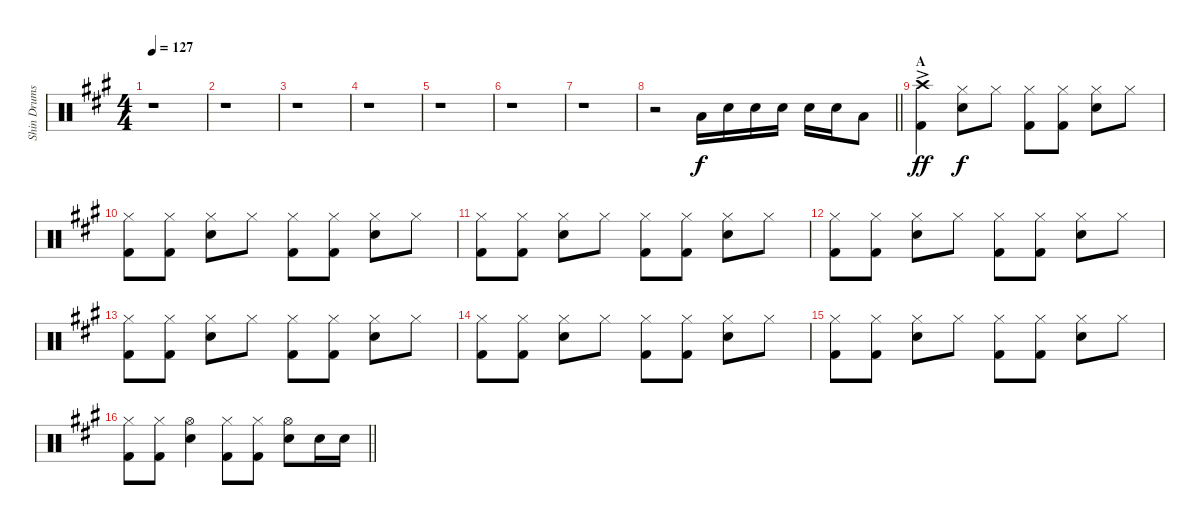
\track ("Shin Drums" "Shin Drums") {instrument percussion}
\staff {score}
\articulation defaults
\ts (4 4)
\tempo 127
\clef neutral
\ks a
r.1{dy f} |
r.1 |
r.1 |
r.1 |
r.1 |
r.1 |
r.1 |
\barLineRight lightlight
r.2 "Low Tom (hit)".16 "Snare (hit) 2".16 "Snare (hit) 2".16 "Snare (hit) 2".16 "Snare (hit) 2".16 "Snare (hit) 2".16 "Low Tom (hit)".8 |
\section ("" "A")
("Crash high (hit)"{ac} "Kick (hit) 2").4{dy ff} ("Hi-Hat (closed)" "Snare (hit) 2").8{dy f} "Hi-Hat (closed)".8 ("Hi-Hat (closed)" "Kick (hit) 2").8 ("Hi-Hat (closed)" "Kick (hit) 2").8 ("Hi-Hat (closed)" "Snare (hit) 2").8 "Hi-Hat (closed)".8 |
("Hi-Hat (closed)" "Kick (hit) 2").8 ("Hi-Hat (closed)" "Kick (hit) 2").8 ("Hi-Hat (closed)" "Snare (hit) 2").8 "Hi-Hat (closed)".8 ("Hi-Hat (closed)" "Kick (hit) 2").8 ("Hi-Hat (closed)" "Kick (hit) 2").8 ("Hi-Hat (closed)" "Snare (hit) 2").8 "Hi-Hat (closed)".8 |
("Hi-Hat (closed)" "Kick (hit) 2").8 ("Hi-Hat (closed)" "Kick (hit) 2").8 ("Hi-Hat (closed)" "Snare (hit) 2").8 "Hi-Hat (closed)".8 ("Hi-Hat (closed)" "Kick (hit) 2").8 ("Hi-Hat (closed)" "Kick (hit) 2").8 ("Hi-Hat (closed)" "Snare (hit) 2").8 "Hi-Hat (closed)".8 |
("Hi-Hat (closed)" "Kick (hit) 2").8 ("Hi-Hat (closed)" "Kick (hit) 2").8 ("Hi-Hat (closed)" "Snare (hit) 2").8 "Hi-Hat (closed)".8 ("Hi-Hat (closed)" "Kick (hit) 2").8 ("Hi-Hat (closed)" "Kick (hit) 2").8 ("Hi-Hat (closed)" "Snare (hit) 2").8 "Hi-Hat (closed)".8 |
("Hi-Hat (closed)" "Kick (hit) 2").8 ("Hi-Hat (closed)" "Kick (hit) 2").8 ("Hi-Hat (closed)" "Snare (hit) 2").8 "Hi-Hat (closed)".8 ("Hi-Hat (closed)" "Kick (hit) 2").8 ("Hi-Hat (closed)" "Kick (hit) 2").8 ("Hi-Hat (closed)" "Snare (hit) 2").8 "Hi-Hat (closed)".8 |
("Hi-Hat (closed)" "Kick (hit) 2").8 ("Hi-Hat (closed)" "Kick (hit) 2").8 ("Hi-Hat (closed)" "Snare (hit) 2").8 "Hi-Hat (closed)".8 ("Hi-Hat (closed)" "Kick (hit) 2").8 ("Hi-Hat (closed)" "Kick (hit) 2").8 ("Hi-Hat (closed)" "Snare (hit) 2").8 "Hi-Hat (closed)".8 |
("Hi-Hat (closed)" "Kick (hit) 2").8 ("Hi-Hat (closed)" "Kick (hit) 2").8 ("Hi-Hat (closed)" "Snare (hit) 2").8 "Hi-Hat (closed)".8 ("Hi-Hat (closed)" "Kick (hit) 2").8 ("Hi-Hat (closed)" "Kick (hit) 2").8 ("Hi-Hat (closed)" "Snare (hit) 2").8 "Hi-Hat (closed)".8 |
\barLineRight lightlight
("Hi-Hat (closed)" "Kick (hit) 2").8 ("Hi-Hat (closed)" "Kick (hit) 2").8 ("Hi-Hat (open)" "Snare (hit) 2").4 ("Hi-Hat (closed)" "Kick (hit) 2").8 ("Hi-Hat (closed)" "Kick (hit) 2").8 ("Hi-Hat (open)" "Snare (hit) 2").8 "Snare (hit) 2".16 "Snare (hit) 2".16
